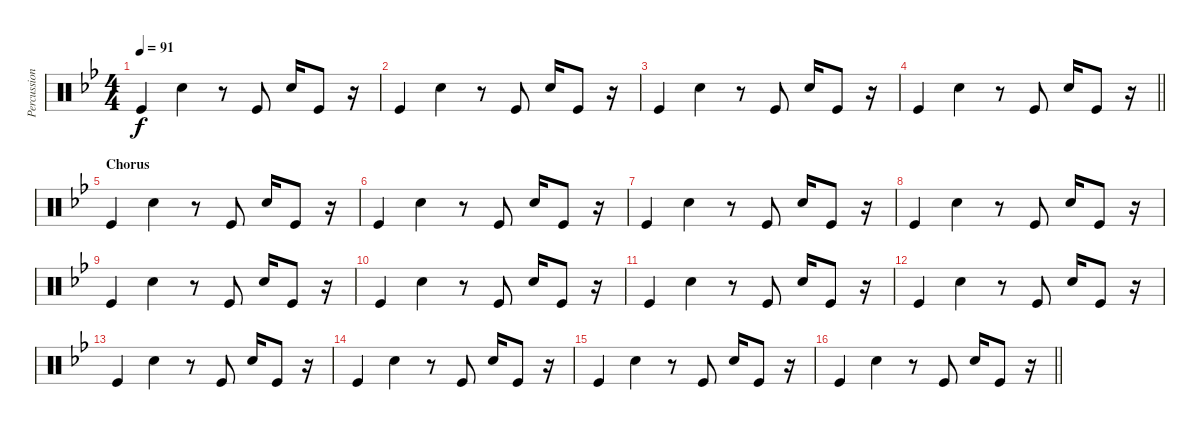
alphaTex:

\track ("Percussion" "Percussion") {instrument percussion}
\staff {score}
\articulation defaults
\ts (4 4)
\tempo 91
\clef neutral
\ks bb "Kick (hit)".4{dy f} "Electric Snare (hit)".4
r.8 "Kick (hit)".8 "Electric Snare (hit)".16 "Kick (hit)".8 r.16 |
"Kick (hit)".4 "Electric Snare (hit)".4 r.8 "Kick (hit)".8 "Electric Snare (hit)".16 "Kick (hit)".8 r.16 |
"Kick (hit)".4 "Electric Snare (hit)".4 r.8 "Kick (hit)".8 "Electric Snare (hit)".16 "Kick (hit)".8 r.16 |
\barLineRight lightlight "Kick (hit)".4 "Electric Snare (hit)".4
r.8 "Kick (hit)".8 "Electric Snare (hit)".16 "Kick (hit)".8 r.16 |
\section ("" "Chorus")
"Kick (hit)".4 "Electric Snare (hit)".4 r.8 "Kick (hit)".8 "Electric Snare (hit)".16 "Kick (hit)".8 r.16 |
"Kick (hit)".4 "Electric Snare (hit)".4 r.8 "Kick (hit)".8 "Electric Snare (hit)".16 "Kick (hit)".8 r.16 |
"Kick (hit)".4 "Electric Snare (hit)".4 r.8 "Kick (hit)".8 "Electric Snare (hit)".16 "Kick (hit)".8 r.16 |
"Kick (hit)".4 "Electric Snare (hit)".4 r.8 "Kick (hit)".8 "Electric Snare (hit)".16 "Kick (hit)".8 r.16 |
"Kick (hit)".4 "Electric Snare (hit)".4 r.8 "Kick (hit)".8 "Electric Snare (hit)".16 "Kick (hit)".8 r.16 |
"Kick (hit)".4 "Electric Snare (hit)".4 r.8 "Kick (hit)".8 "Electric Snare (hit)".16 "Kick (hit)".8 r.16 |
"Kick (hit)".4 "Electric Snare (hit)".4 r.8 "Kick (hit)".8 "Electric Snare (hit)".16 "Kick (hit)".8 r.16 |
"Kick (hit)".4 "Electric Snare (hit)".4 r.8 "Kick (hit)".8 "Electric Snare (hit)".16 "Kick (hit)".8 r.16 |
"Kick (hit)".4 "Electric Snare (hit)".4 r.8 "Kick (hit)".8 "Electric Snare (hit)".16 "Kick (hit)".8 r.16 |
"Kick (hit)".4 "Electric Snare (hit)".4 r.8 "Kick (hit)".8 "Electric Snare (hit)".16 "Kick (hit)".8 r.16 |
"Kick (hit)".4 "Electric Snare (hit)".4 r.8 "Kick (hit)".8 "Electric Snare (hit)".16 "Kick (hit)".8 r.16 |
\barLineRight lightlight "Kick (hit)".4 "Electric Snare (hit)".4
r.8 "Kick (hit)".8 "Electric Snare (hit)".16 "Kick (hit)".8 r.16
